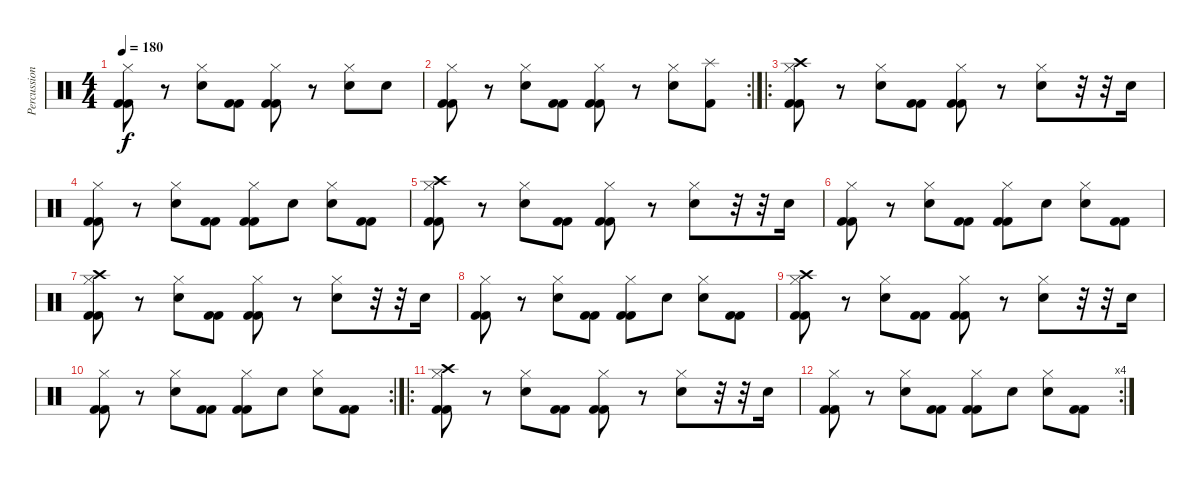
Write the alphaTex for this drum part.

\track ("Percussion" "Percussion") {instrument percussion}
\staff {score}
\articulation defaults
\ts (4 4)
\tempo 180
\clef neutral
\ks c
("Hi-Hat (closed)" "Kick (hit) 2" "Kick (hit) 2").8{dy f} r.8 ("Hi-Hat (closed)" "Snare (hit) 2").8 ("Kick (hit) 2" "Kick (hit) 2").8 ("Hi-Hat (closed)" "Kick (hit) 2" "Kick (hit) 2").8 r.8 ("Hi-Hat (closed)" "Snare (hit) 2").8 "Snare (hit) 2".8 |
\rc 2
("Hi-Hat (closed)" "Kick (hit) 2" "Kick (hit) 2").8 r.8 ("Hi-Hat (closed)" "Snare (hit) 2").8 ("Kick (hit) 2" "Kick (hit) 2").8 ("Hi-Hat (closed)" "Kick (hit) 2" "Kick (hit) 2").8 r.8 ("Hi-Hat (closed)" "Snare (hit) 2").8 ("Splash (hit)" "Kick (hit) 2").8 |
\ro
("Hi-Hat (closed)" "Crash high (hit)" "Kick (hit) 2" "Kick (hit) 2").8 r.8 ("Hi-Hat (closed)" "Snare (hit) 2").8 ("Kick (hit) 2" "Kick (hit) 2").8 ("Hi-Hat (closed)" "Kick (hit) 2" "Kick (hit) 2").8 r.8 ("Hi-Hat (closed)" "Snare (hit) 2").8 r.32 r.32 "Snare (hit) 2".16 |
("Hi-Hat (closed)" "Kick (hit) 2" "Kick (hit) 2").8 r.8 ("Hi-Hat (closed)" "Snare (hit) 2").8 ("Kick (hit) 2" "Kick (hit) 2").8 ("Hi-Hat (closed)" "Kick (hit) 2" "Kick (hit) 2").8 "Snare (hit) 2".8 ("Hi-Hat (closed)" "Snare (hit) 2").8 ("Kick (hit) 2" "Kick (hit) 2").8 |
("Hi-Hat (closed)" "Crash high (hit)" "Kick (hit) 2" "Kick (hit) 2").8 r.8 ("Hi-Hat (closed)" "Snare (hit) 2").8 ("Kick (hit) 2" "Kick (hit) 2").8 ("Hi-Hat (closed)" "Kick (hit) 2" "Kick (hit) 2").8 r.8 ("Hi-Hat (closed)" "Snare (hit) 2").8 r.32 r.32 "Snare (hit) 2".16 |
("Hi-Hat (closed)" "Kick (hit) 2" "Kick (hit) 2").8 r.8 ("Hi-Hat (closed)" "Snare (hit) 2").8 ("Kick (hit) 2" "Kick (hit) 2").8 ("Hi-Hat (closed)" "Kick (hit) 2" "Kick (hit) 2").8 "Snare (hit) 2".8 ("Hi-Hat (closed)" "Snare (hit) 2").8 ("Kick (hit) 2" "Kick (hit) 2").8 |
("Hi-Hat (closed)" "Crash high (hit)" "Kick (hit) 2" "Kick (hit) 2").8 r.8 ("Hi-Hat (closed)" "Snare (hit) 2").8 ("Kick (hit) 2" "Kick (hit) 2").8 ("Hi-Hat (closed)" "Kick (hit) 2" "Kick (hit) 2").8 r.8 ("Hi-Hat (closed)" "Snare (hit) 2").8 r.32 r.32 "Snare (hit) 2".16 |
("Hi-Hat (closed)" "Kick (hit) 2" "Kick (hit) 2").8 r.8 ("Hi-Hat (closed)" "Snare (hit) 2").8 ("Kick (hit) 2" "Kick (hit) 2").8 ("Hi-Hat (closed)" "Kick (hit) 2" "Kick (hit) 2").8 "Snare (hit) 2".8 ("Hi-Hat (closed)" "Snare (hit) 2").8 ("Kick (hit) 2" "Kick (hit) 2").8 |
("Hi-Hat (closed)" "Crash high (hit)" "Kick (hit) 2" "Kick (hit) 2").8 r.8 ("Hi-Hat (closed)" "Snare (hit) 2").8 ("Kick (hit) 2" "Kick (hit) 2").8 ("Hi-Hat (closed)" "Kick (hit) 2" "Kick (hit) 2").8 r.8 ("Hi-Hat (closed)" "Snare (hit) 2").8 r.32 r.32 "Snare (hit) 2".16 |
\rc 2
("Hi-Hat (closed)" "Kick (hit) 2" "Kick (hit) 2").8 r.8 ("Hi-Hat (closed)" "Snare (hit) 2").8 ("Kick (hit) 2" "Kick (hit) 2").8 ("Hi-Hat (closed)" "Kick (hit) 2" "Kick (hit) 2").8 "Snare (hit) 2".8 ("Hi-Hat (closed)" "Snare (hit) 2").8 ("Kick (hit) 2" "Kick (hit) 2").8 |
\ro
("Hi-Hat (closed)" "Crash high (hit)" "Kick (hit) 2" "Kick (hit) 2").8 r.8 ("Hi-Hat (closed)" "Snare (hit) 2").8 ("Kick (hit) 2" "Kick (hit) 2").8 ("Hi-Hat (closed)" "Kick (hit) 2" "Kick (hit) 2").8 r.8 ("Hi-Hat (closed)" "Snare (hit) 2").8 r.32 r.32 "Snare (hit) 2".16 |
\rc 4
("Hi-Hat (closed)" "Kick (hit) 2" "Kick (hit) 2").8 r.8 ("Hi-Hat (closed)" "Snare (hit) 2").8 ("Kick (hit) 2" "Kick (hit) 2").8 ("Hi-Hat (closed)" "Kick (hit) 2" "Kick (hit) 2").8 "Snare (hit) 2".8 ("Hi-Hat (closed)" "Snare (hit) 2").8 ("Kick (hit) 2" "Kick (hit) 2").8
